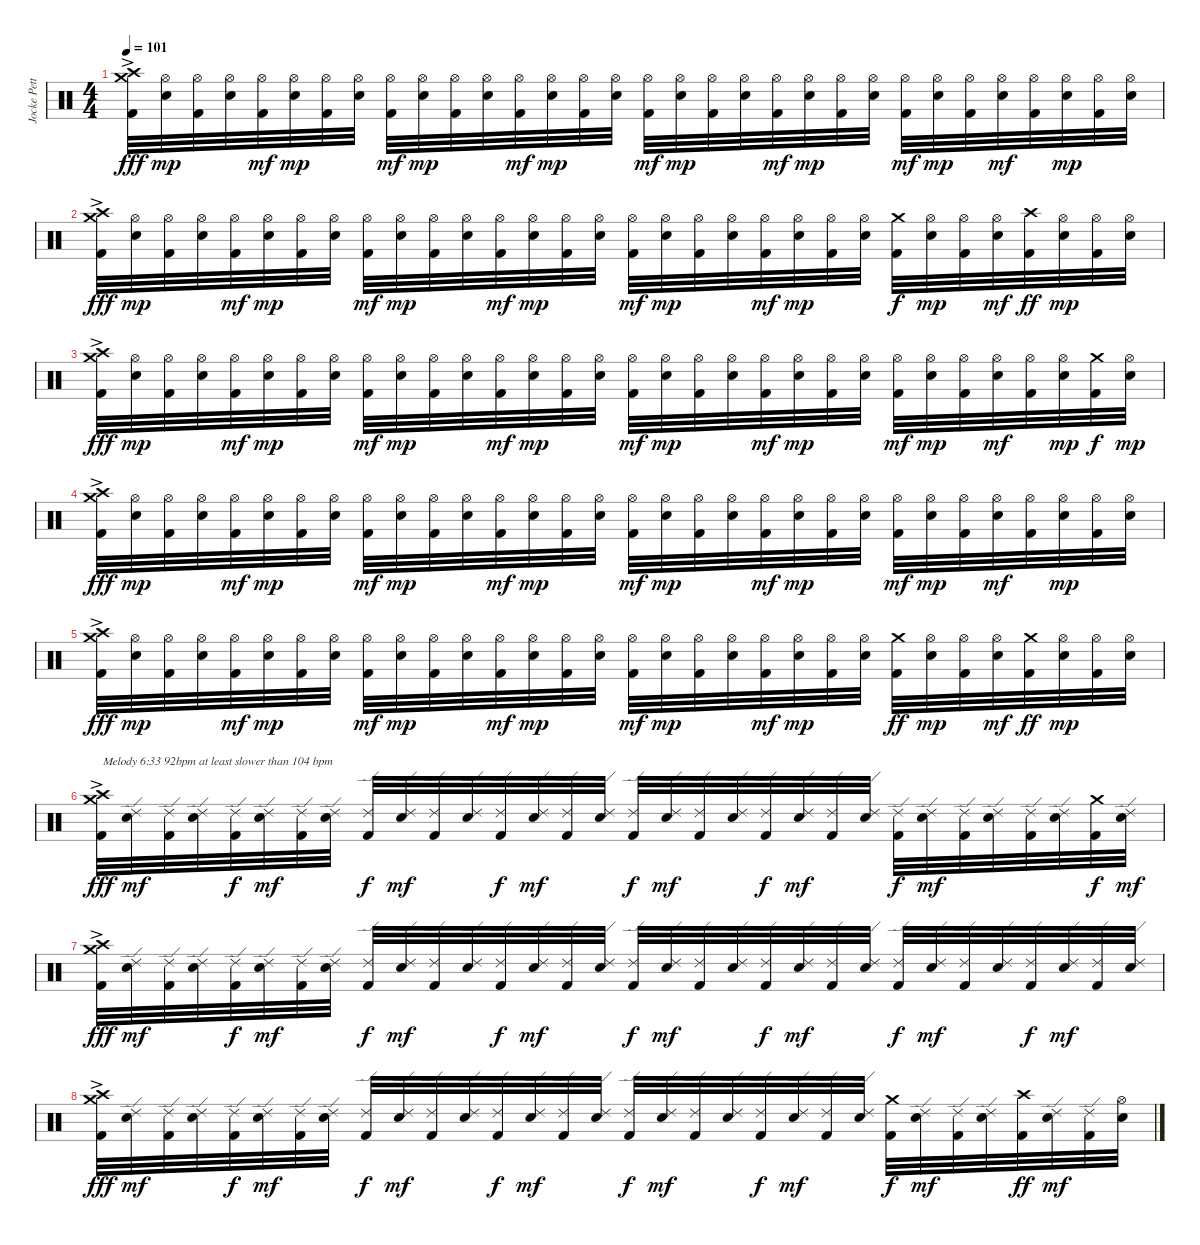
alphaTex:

\track ("Jocke Pettersson" "Jocke Pett") {instrument percussion}
\staff {score}
\articulation defaults
\ts (4 4)
\tempo 101
\clef neutral
\ks c
("Kick (hit) 2" "Crash high (hit)"{ac} "Crash medium (hit)"{ac}).32{dy fff} ("Electric Snare (hit)" "Hi-Hat (open)").32{dy mp} ("Kick (hit) 2" "Hi-Hat (open)").32 ("Electric Snare (hit)" "Hi-Hat (open)").32 ("Kick (hit) 2" "Hi-Hat (open)").32{dy mf} ("Electric Snare (hit)" "Hi-Hat (open)").32{dy mp} ("Kick (hit) 2" "Hi-Hat (open)").32 ("Electric Snare (hit)" "Hi-Hat (open)").32 ("Kick (hit) 2" "Hi-Hat (open)").32{dy mf} ("Electric Snare (hit)" "Hi-Hat (open)").32{dy mp} ("Kick (hit) 2" "Hi-Hat (open)").32 ("Electric Snare (hit)" "Hi-Hat (open)").32 ("Kick (hit) 2" "Hi-Hat (open)").32{dy mf} ("Electric Snare (hit)" "Hi-Hat (open)").32{dy mp} ("Kick (hit) 2" "Hi-Hat (open)").32 ("Electric Snare (hit)" "Hi-Hat (open)").32 ("Kick (hit) 2" "Hi-Hat (open)").32{dy mf} ("Electric Snare (hit)" "Hi-Hat (open)").32{dy mp} ("Kick (hit) 2" "Hi-Hat (open)").32 ("Electric Snare (hit)" "Hi-Hat (open)").32 ("Kick (hit) 2" "Hi-Hat (open)").32{dy mf} ("Electric Snare (hit)" "Hi-Hat (open)").32{dy mp} ("Kick (hit) 2" "Hi-Hat (open)").32 ("Electric Snare (hit)" "Hi-Hat (open)").32 ("Kick (hit) 2" "Hi-Hat (open)").32{dy mf} ("Electric Snare (hit)" "Hi-Hat (open)").32{dy mp} ("Kick (hit) 2" "Hi-Hat (open)").32 ("Electric Snare (hit)" "Hi-Hat (open)").32{dy mf} ("Kick (hit) 2" "Hi-Hat (open)").32 ("Electric Snare (hit)" "Hi-Hat (open)").32{dy mp} ("Kick (hit) 2" "Hi-Hat (open)").32 ("Electric Snare (hit)" "Hi-Hat (open)").32 |
("Kick (hit) 2" "Crash high (hit)"{ac} "Crash medium (hit)"{ac}).32{dy fff} ("Electric Snare (hit)" "Hi-Hat (open)").32{dy mp} ("Kick (hit) 2" "Hi-Hat (open)").32 ("Electric Snare (hit)" "Hi-Hat (open)").32 ("Kick (hit) 2" "Hi-Hat (open)").32{dy mf} ("Electric Snare (hit)" "Hi-Hat (open)").32{dy mp} ("Kick (hit) 2" "Hi-Hat (open)").32 ("Electric Snare (hit)" "Hi-Hat (open)").32 ("Kick (hit) 2" "Hi-Hat (open)").32{dy mf} ("Electric Snare (hit)" "Hi-Hat (open)").32{dy mp} ("Kick (hit) 2" "Hi-Hat (open)").32 ("Electric Snare (hit)" "Hi-Hat (open)").32 ("Kick (hit) 2" "Hi-Hat (open)").32{dy mf} ("Electric Snare (hit)" "Hi-Hat (open)").32{dy mp} ("Kick (hit) 2" "Hi-Hat (open)").32 ("Electric Snare (hit)" "Hi-Hat (open)").32 ("Kick (hit) 2" "Hi-Hat (open)").32{dy mf} ("Electric Snare (hit)" "Hi-Hat (open)").32{dy mp} ("Kick (hit) 2" "Hi-Hat (open)").32 ("Electric Snare (hit)" "Hi-Hat (open)").32 ("Kick (hit) 2" "Hi-Hat (open)").32{dy mf} ("Electric Snare (hit)" "Hi-Hat (open)").32{dy mp} ("Kick (hit) 2" "Hi-Hat (open)").32 ("Electric Snare (hit)" "Hi-Hat (open)").32 ("Kick (hit) 2" "Crash medium (hit)").32{dy f} ("Electric Snare (hit)" "Hi-Hat (open)").32{dy mp} ("Kick (hit) 2" "Hi-Hat (open)").32 ("Electric Snare (hit)" "Hi-Hat (open)").32{dy mf} ("Kick (hit) 2" "Crash high (hit)").32{dy ff} ("Electric Snare (hit)" "Hi-Hat (open)").32{dy mp} ("Kick (hit) 2" "Hi-Hat (open)").32 ("Electric Snare (hit)" "Hi-Hat (open)").32 |
("Kick (hit) 2" "Crash high (hit)"{ac} "Crash medium (hit)"{ac}).32{dy fff} ("Electric Snare (hit)" "Hi-Hat (open)").32{dy mp} ("Kick (hit) 2" "Hi-Hat (open)").32 ("Electric Snare (hit)" "Hi-Hat (open)").32 ("Kick (hit) 2" "Hi-Hat (open)").32{dy mf} ("Electric Snare (hit)" "Hi-Hat (open)").32{dy mp} ("Kick (hit) 2" "Hi-Hat (open)").32 ("Electric Snare (hit)" "Hi-Hat (open)").32 ("Kick (hit) 2" "Hi-Hat (open)").32{dy mf} ("Electric Snare (hit)" "Hi-Hat (open)").32{dy mp} ("Kick (hit) 2" "Hi-Hat (open)").32 ("Electric Snare (hit)" "Hi-Hat (open)").32 ("Kick (hit) 2" "Hi-Hat (open)").32{dy mf} ("Electric Snare (hit)" "Hi-Hat (open)").32{dy mp} ("Kick (hit) 2" "Hi-Hat (open)").32 ("Electric Snare (hit)" "Hi-Hat (open)").32 ("Kick (hit) 2" "Hi-Hat (open)").32{dy mf} ("Electric Snare (hit)" "Hi-Hat (open)").32{dy mp} ("Kick (hit) 2" "Hi-Hat (open)").32 ("Electric Snare (hit)" "Hi-Hat (open)").32 ("Kick (hit) 2" "Hi-Hat (open)").32{dy mf} ("Electric Snare (hit)" "Hi-Hat (open)").32{dy mp} ("Kick (hit) 2" "Hi-Hat (open)").32 ("Electric Snare (hit)" "Hi-Hat (open)").32 ("Kick (hit) 2" "Hi-Hat (open)").32{dy mf} ("Electric Snare (hit)" "Hi-Hat (open)").32{dy mp} ("Kick (hit) 2" "Hi-Hat (open)").32 ("Electric Snare (hit)" "Hi-Hat (open)").32{dy mf} ("Kick (hit) 2" "Hi-Hat (open)").32 ("Electric Snare (hit)" "Hi-Hat (open)").32{dy mp} ("Kick (hit) 2" "Crash medium (hit)").32{dy f} ("Electric Snare (hit)" "Hi-Hat (open)").32{dy mp} |
("Kick (hit) 2" "Crash high (hit)"{ac} "Crash medium (hit)"{ac}).32{dy fff} ("Electric Snare (hit)" "Hi-Hat (open)").32{dy mp} ("Kick (hit) 2" "Hi-Hat (open)").32 ("Electric Snare (hit)" "Hi-Hat (open)").32 ("Kick (hit) 2" "Hi-Hat (open)").32{dy mf} ("Electric Snare (hit)" "Hi-Hat (open)").32{dy mp} ("Kick (hit) 2" "Hi-Hat (open)").32 ("Electric Snare (hit)" "Hi-Hat (open)").32 ("Kick (hit) 2" "Hi-Hat (open)").32{dy mf} ("Electric Snare (hit)" "Hi-Hat (open)").32{dy mp} ("Kick (hit) 2" "Hi-Hat (open)").32 ("Electric Snare (hit)" "Hi-Hat (open)").32 ("Kick (hit) 2" "Hi-Hat (open)").32{dy mf} ("Electric Snare (hit)" "Hi-Hat (open)").32{dy mp} ("Kick (hit) 2" "Hi-Hat (open)").32 ("Electric Snare (hit)" "Hi-Hat (open)").32 ("Kick (hit) 2" "Hi-Hat (open)").32{dy mf} ("Electric Snare (hit)" "Hi-Hat (open)").32{dy mp} ("Kick (hit) 2" "Hi-Hat (open)").32 ("Electric Snare (hit)" "Hi-Hat (open)").32 ("Kick (hit) 2" "Hi-Hat (open)").32{dy mf} ("Electric Snare (hit)" "Hi-Hat (open)").32{dy mp} ("Kick (hit) 2" "Hi-Hat (open)").32 ("Electric Snare (hit)" "Hi-Hat (open)").32 ("Kick (hit) 2" "Hi-Hat (open)").32{dy mf} ("Electric Snare (hit)" "Hi-Hat (open)").32{dy mp} ("Kick (hit) 2" "Hi-Hat (open)").32 ("Electric Snare (hit)" "Hi-Hat (open)").32{dy mf} ("Kick (hit) 2" "Hi-Hat (open)").32 ("Electric Snare (hit)" "Hi-Hat (open)").32{dy mp} ("Kick (hit) 2" "Hi-Hat (open)").32 ("Electric Snare (hit)" "Hi-Hat (open)").32 |
("Kick (hit) 2" "Crash high (hit)"{ac} "Crash medium (hit)"{ac}).32{dy fff} ("Electric Snare (hit)" "Hi-Hat (open)").32{dy mp} ("Kick (hit) 2" "Hi-Hat (open)").32 ("Electric Snare (hit)" "Hi-Hat (open)").32 ("Kick (hit) 2" "Hi-Hat (open)").32{dy mf} ("Electric Snare (hit)" "Hi-Hat (open)").32{dy mp} ("Kick (hit) 2" "Hi-Hat (open)").32 ("Electric Snare (hit)" "Hi-Hat (open)").32 ("Kick (hit) 2" "Hi-Hat (open)").32{dy mf} ("Electric Snare (hit)" "Hi-Hat (open)").32{dy mp} ("Kick (hit) 2" "Hi-Hat (open)").32 ("Electric Snare (hit)" "Hi-Hat (open)").32 ("Kick (hit) 2" "Hi-Hat (open)").32{dy mf} ("Electric Snare (hit)" "Hi-Hat (open)").32{dy mp} ("Kick (hit) 2" "Hi-Hat (open)").32 ("Electric Snare (hit)" "Hi-Hat (open)").32 ("Kick (hit) 2" "Hi-Hat (open)").32{dy mf} ("Electric Snare (hit)" "Hi-Hat (open)").32{dy mp} ("Kick (hit) 2" "Hi-Hat (open)").32 ("Electric Snare (hit)" "Hi-Hat (open)").32 ("Kick (hit) 2" "Hi-Hat (open)").32{dy mf} ("Electric Snare (hit)" "Hi-Hat (open)").32{dy mp} ("Kick (hit) 2" "Hi-Hat (open)").32 ("Electric Snare (hit)" "Hi-Hat (open)").32 ("Kick (hit) 2" "Crash medium (hit)").32{dy ff} ("Electric Snare (hit)" "Hi-Hat (open)").32{dy mp} ("Kick (hit) 2" "Hi-Hat (open)").32 ("Electric Snare (hit)" "Hi-Hat (open)").32{dy mf} ("Kick (hit) 2" "Crash medium (hit)").32{dy ff} ("Electric Snare (hit)" "Hi-Hat (open)").32{dy mp} ("Kick (hit) 2" "Hi-Hat (open)").32 ("Electric Snare (hit)" "Hi-Hat (open)").32 |
("Kick (hit) 2" "Crash high (hit)"{ac} "Crash medium (hit)"{ac}).32{txt "Melody 6:33 92bpm at least slower than 104 bpm" dy fff} ("Electric Snare (hit)" "Ride (edge) 2").32{dy mf} ("Kick (hit) 2" "Ride (edge) 2").32 ("Electric Snare (hit)" "Ride (edge) 2").32 ("Kick (hit) 2" "Ride (edge) 2").32{dy f} ("Electric Snare (hit)" "Ride (edge) 2").32{dy mf} ("Kick (hit) 2" "Ride (edge) 2").32 ("Electric Snare (hit)" "Ride (edge) 2").32 ("Kick (hit) 2" "Ride (edge) 2").32{dy f} ("Electric Snare (hit)" "Ride (edge) 2").32{dy mf} ("Kick (hit) 2" "Ride (edge) 2").32 ("Electric Snare (hit)" "Ride (edge) 2").32 ("Kick (hit) 2" "Ride (edge) 2").32{dy f} ("Electric Snare (hit)" "Ride (edge) 2").32{dy mf} ("Kick (hit) 2" "Ride (edge) 2").32 ("Electric Snare (hit)" "Ride (edge) 2").32 ("Kick (hit) 2" "Ride (edge) 2").32{dy f} ("Electric Snare (hit)" "Ride (edge) 2").32{dy mf} ("Kick (hit) 2" "Ride (edge) 2").32 ("Electric Snare (hit)" "Ride (edge) 2").32 ("Kick (hit) 2" "Ride (edge) 2").32{dy f} ("Electric Snare (hit)" "Ride (edge) 2").32{dy mf} ("Kick (hit) 2" "Ride (edge) 2").32 ("Electric Snare (hit)" "Ride (edge) 2").32 ("Kick (hit) 2" "Ride (edge) 2").32{dy f} ("Electric Snare (hit)" "Ride (edge) 2").32{dy mf} ("Kick (hit) 2" "Ride (edge) 2").32 ("Electric Snare (hit)" "Ride (edge) 2").32 ("Kick (hit) 2" "Ride (edge) 2").32 ("Electric Snare (hit)" "Ride (edge) 2").32 ("Kick (hit) 2" "Crash medium (hit)").32{dy f} ("Electric Snare (hit)" "Ride (edge) 2").32{dy mf} |
("Kick (hit) 2" "Crash high (hit)"{ac} "Crash medium (hit)"{ac}).32{dy fff} ("Electric Snare (hit)" "Ride (edge) 2").32{dy mf} ("Kick (hit) 2" "Ride (edge) 2").32 ("Electric Snare (hit)" "Ride (edge) 2").32 ("Kick (hit) 2" "Ride (edge) 2").32{dy f} ("Electric Snare (hit)" "Ride (edge) 2").32{dy mf} ("Kick (hit) 2" "Ride (edge) 2").32 ("Electric Snare (hit)" "Ride (edge) 2").32 ("Kick (hit) 2" "Ride (edge) 2").32{dy f} ("Electric Snare (hit)" "Ride (edge) 2").32{dy mf} ("Kick (hit) 2" "Ride (edge) 2").32 ("Electric Snare (hit)" "Ride (edge) 2").32 ("Kick (hit) 2" "Ride (edge) 2").32{dy f} ("Electric Snare (hit)" "Ride (edge) 2").32{dy mf} ("Kick (hit) 2" "Ride (edge) 2").32 ("Electric Snare (hit)" "Ride (edge) 2").32 ("Kick (hit) 2" "Ride (edge) 2").32{dy f} ("Electric Snare (hit)" "Ride (edge) 2").32{dy mf} ("Kick (hit) 2" "Ride (edge) 2").32 ("Electric Snare (hit)" "Ride (edge) 2").32 ("Kick (hit) 2" "Ride (edge) 2").32{dy f} ("Electric Snare (hit)" "Ride (edge) 2").32{dy mf} ("Kick (hit) 2" "Ride (edge) 2").32 ("Electric Snare (hit)" "Ride (edge) 2").32 ("Kick (hit) 2" "Ride (edge) 2").32{dy f} ("Electric Snare (hit)" "Ride (edge) 2").32{dy mf} ("Kick (hit) 2" "Ride (edge) 2").32 ("Electric Snare (hit)" "Ride (edge) 2").32 ("Kick (hit) 2" "Ride (edge) 2").32{dy f} ("Electric Snare (hit)" "Ride (edge) 2").32{dy mf} ("Kick (hit) 2" "Ride (edge) 2").32 ("Electric Snare (hit)" "Ride (edge) 2").32 |
("Kick (hit) 2" "Crash high (hit)"{ac} "Crash medium (hit)"{ac}).32{dy fff} ("Electric Snare (hit)" "Ride (edge) 2").32{dy mf} ("Kick (hit) 2" "Ride (edge) 2").32 ("Electric Snare (hit)" "Ride (edge) 2").32 ("Kick (hit) 2" "Ride (edge) 2").32{dy f} ("Electric Snare (hit)" "Ride (edge) 2").32{dy mf} ("Kick (hit) 2" "Ride (edge) 2").32 ("Electric Snare (hit)" "Ride (edge) 2").32 ("Kick (hit) 2" "Ride (edge) 2").32{dy f} ("Electric Snare (hit)" "Ride (edge) 2").32{dy mf} ("Kick (hit) 2" "Ride (edge) 2").32 ("Electric Snare (hit)" "Ride (edge) 2").32 ("Kick (hit) 2" "Ride (edge) 2").32{dy f} ("Electric Snare (hit)" "Ride (edge) 2").32{dy mf} ("Kick (hit) 2" "Ride (edge) 2").32 ("Electric Snare (hit)" "Ride (edge) 2").32 ("Kick (hit) 2" "Ride (edge) 2").32{dy f} ("Electric Snare (hit)" "Ride (edge) 2").32{dy mf} ("Kick (hit) 2" "Ride (edge) 2").32 ("Electric Snare (hit)" "Ride (edge) 2").32 ("Kick (hit) 2" "Ride (edge) 2").32{dy f} ("Electric Snare (hit)" "Ride (edge) 2").32{dy mf} ("Kick (hit) 2" "Ride (edge) 2").32 ("Electric Snare (hit)" "Ride (edge) 2").32 ("Kick (hit) 2" "Crash medium (hit)").32{dy f} ("Electric Snare (hit)" "Ride (edge) 2").32{dy mf} ("Kick (hit) 2" "Ride (edge) 2").32 ("Electric Snare (hit)" "Ride (edge) 2").32 ("Kick (hit) 2" "Crash high (hit)").32{dy ff} ("Electric Snare (hit)" "Ride (edge) 2").32{dy mf} ("Kick (hit) 2" "Ride (edge) 2").32 ("Electric Snare (hit)" "Hi-Hat (open)").32
